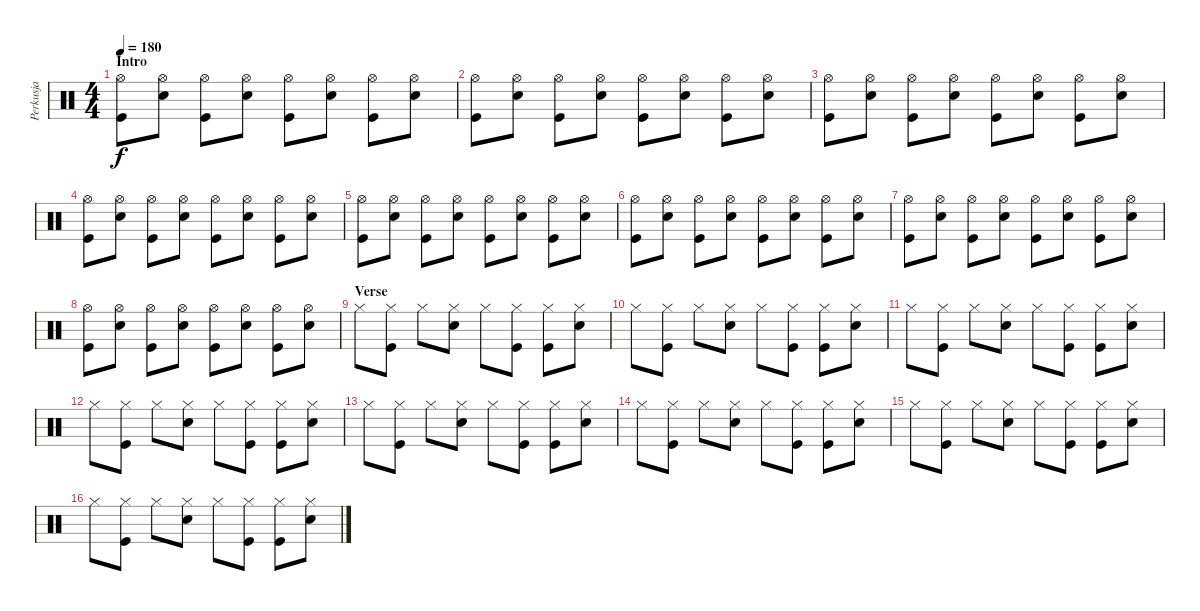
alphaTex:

\track ("Perkusja" "Perkusja") {instrument percussion}
\staff {score}
\articulation defaults
\ts (4 4)
\section ("" "Intro")
\tempo 180
\clef neutral
\ks c
("Kick (hit)" "Hi-Hat (open)").8{dy f} ("Electric Snare (hit)" "Hi-Hat (open)").8 ("Kick (hit)" "Hi-Hat (open)").8 ("Electric Snare (hit)" "Hi-Hat (open)").8 ("Kick (hit)" "Hi-Hat (open)").8 ("Electric Snare (hit)" "Hi-Hat (open)").8 ("Kick (hit)" "Hi-Hat (open)").8 ("Electric Snare (hit)" "Hi-Hat (open)").8 |
("Kick (hit)" "Hi-Hat (open)").8 ("Electric Snare (hit)" "Hi-Hat (open)").8 ("Kick (hit)" "Hi-Hat (open)").8 ("Electric Snare (hit)" "Hi-Hat (open)").8 ("Kick (hit)" "Hi-Hat (open)").8 ("Electric Snare (hit)" "Hi-Hat (open)").8 ("Kick (hit)" "Hi-Hat (open)").8 ("Electric Snare (hit)" "Hi-Hat (open)").8 |
("Kick (hit)" "Hi-Hat (open)").8 ("Electric Snare (hit)" "Hi-Hat (open)").8 ("Kick (hit)" "Hi-Hat (open)").8 ("Electric Snare (hit)" "Hi-Hat (open)").8 ("Kick (hit)" "Hi-Hat (open)").8 ("Electric Snare (hit)" "Hi-Hat (open)").8 ("Kick (hit)" "Hi-Hat (open)").8 ("Electric Snare (hit)" "Hi-Hat (open)").8 |
("Kick (hit)" "Hi-Hat (open)").8 ("Electric Snare (hit)" "Hi-Hat (open)").8 ("Kick (hit)" "Hi-Hat (open)").8 ("Electric Snare (hit)" "Hi-Hat (open)").8 ("Kick (hit)" "Hi-Hat (open)").8 ("Electric Snare (hit)" "Hi-Hat (open)").8 ("Kick (hit)" "Hi-Hat (open)").8 ("Electric Snare (hit)" "Hi-Hat (open)").8 |
("Kick (hit)" "Hi-Hat (open)").8 ("Electric Snare (hit)" "Hi-Hat (open)").8 ("Kick (hit)" "Hi-Hat (open)").8 ("Electric Snare (hit)" "Hi-Hat (open)").8 ("Kick (hit)" "Hi-Hat (open)").8 ("Electric Snare (hit)" "Hi-Hat (open)").8 ("Kick (hit)" "Hi-Hat (open)").8 ("Electric Snare (hit)" "Hi-Hat (open)").8 |
("Kick (hit)" "Hi-Hat (open)").8 ("Electric Snare (hit)" "Hi-Hat (open)").8 ("Kick (hit)" "Hi-Hat (open)").8 ("Electric Snare (hit)" "Hi-Hat (open)").8 ("Kick (hit)" "Hi-Hat (open)").8 ("Electric Snare (hit)" "Hi-Hat (open)").8 ("Kick (hit)" "Hi-Hat (open)").8 ("Electric Snare (hit)" "Hi-Hat (open)").8 |
("Kick (hit)" "Hi-Hat (open)").8 ("Electric Snare (hit)" "Hi-Hat (open)").8 ("Kick (hit)" "Hi-Hat (open)").8 ("Electric Snare (hit)" "Hi-Hat (open)").8 ("Kick (hit)" "Hi-Hat (open)").8 ("Electric Snare (hit)" "Hi-Hat (open)").8 ("Kick (hit)" "Hi-Hat (open)").8 ("Electric Snare (hit)" "Hi-Hat (open)").8 |
("Kick (hit)" "Hi-Hat (open)").8 ("Electric Snare (hit)" "Hi-Hat (open)").8 ("Kick (hit)" "Hi-Hat (open)").8 ("Electric Snare (hit)" "Hi-Hat (open)").8 ("Kick (hit)" "Hi-Hat (open)").8 ("Electric Snare (hit)" "Hi-Hat (open)").8 ("Kick (hit)" "Hi-Hat (open)").8 ("Electric Snare (hit)" "Hi-Hat (open)").8 |
\section ("" "Verse")
"Hi-Hat (closed)".8 ("Hi-Hat (closed)" "Kick (hit)").8 "Hi-Hat (closed)".8 ("Hi-Hat (closed)" "Electric Snare (hit)").8 "Hi-Hat (closed)".8 ("Hi-Hat (closed)" "Kick (hit)").8 ("Hi-Hat (closed)" "Kick (hit)").8 ("Hi-Hat (closed)" "Electric Snare (hit)").8 |
"Hi-Hat (closed)".8 ("Hi-Hat (closed)" "Kick (hit)").8 "Hi-Hat (closed)".8 ("Hi-Hat (closed)" "Electric Snare (hit)").8 "Hi-Hat (closed)".8 ("Hi-Hat (closed)" "Kick (hit)").8 ("Hi-Hat (closed)" "Kick (hit)").8 ("Hi-Hat (closed)" "Electric Snare (hit)").8 |
"Hi-Hat (closed)".8 ("Hi-Hat (closed)" "Kick (hit)").8 "Hi-Hat (closed)".8 ("Hi-Hat (closed)" "Electric Snare (hit)").8 "Hi-Hat (closed)".8 ("Hi-Hat (closed)" "Kick (hit)").8 ("Hi-Hat (closed)" "Kick (hit)").8 ("Hi-Hat (closed)" "Electric Snare (hit)").8 |
"Hi-Hat (closed)".8 ("Hi-Hat (closed)" "Kick (hit)").8 "Hi-Hat (closed)".8 ("Hi-Hat (closed)" "Electric Snare (hit)").8 "Hi-Hat (closed)".8 ("Hi-Hat (closed)" "Kick (hit)").8 ("Hi-Hat (closed)" "Kick (hit)").8 ("Hi-Hat (closed)" "Electric Snare (hit)").8 |
"Hi-Hat (closed)".8 ("Hi-Hat (closed)" "Kick (hit)").8 "Hi-Hat (closed)".8 ("Hi-Hat (closed)" "Electric Snare (hit)").8 "Hi-Hat (closed)".8 ("Hi-Hat (closed)" "Kick (hit)").8 ("Hi-Hat (closed)" "Kick (hit)").8 ("Hi-Hat (closed)" "Electric Snare (hit)").8 |
"Hi-Hat (closed)".8 ("Hi-Hat (closed)" "Kick (hit)").8 "Hi-Hat (closed)".8 ("Hi-Hat (closed)" "Electric Snare (hit)").8 "Hi-Hat (closed)".8 ("Hi-Hat (closed)" "Kick (hit)").8 ("Hi-Hat (closed)" "Kick (hit)").8 ("Hi-Hat (closed)" "Electric Snare (hit)").8 |
"Hi-Hat (closed)".8 ("Hi-Hat (closed)" "Kick (hit)").8 "Hi-Hat (closed)".8 ("Hi-Hat (closed)" "Electric Snare (hit)").8 "Hi-Hat (closed)".8 ("Hi-Hat (closed)" "Kick (hit)").8 ("Hi-Hat (closed)" "Kick (hit)").8 ("Hi-Hat (closed)" "Electric Snare (hit)").8 |
"Hi-Hat (closed)".8 ("Hi-Hat (closed)" "Kick (hit)").8 "Hi-Hat (closed)".8 ("Hi-Hat (closed)" "Electric Snare (hit)").8 "Hi-Hat (closed)".8 ("Hi-Hat (closed)" "Kick (hit)").8 ("Hi-Hat (closed)" "Kick (hit)").8 ("Hi-Hat (closed)" "Electric Snare (hit)").8
